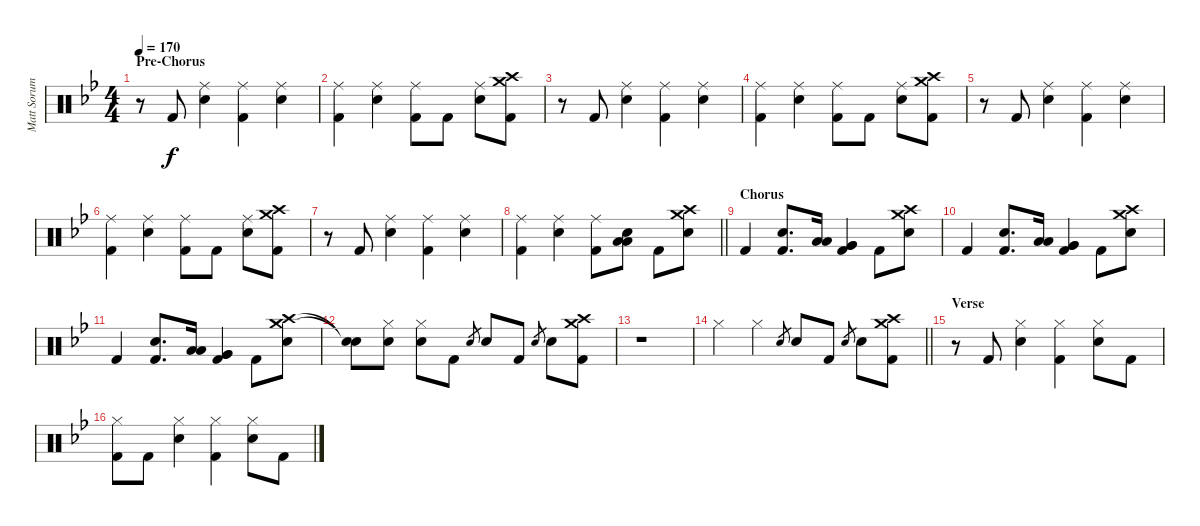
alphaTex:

\track ("Matt Sorum - Drums" "Matt Sorum") {instrument percussion}
\staff {score}
\articulation defaults
\ts (4 4)
\section ("" "Pre-Chorus")
\tempo 170
\clef neutral
\ks bb
r.8{dy f} "Kick (hit) 2".8 ("Ride (middle)" "Snare (hit) 2").4 ("Ride (middle)" "Kick (hit) 2").4 ("Ride (middle)" "Snare (hit) 2").4 |
("Ride (middle)" "Kick (hit) 2").4 ("Ride (middle)" "Snare (hit) 2").4 ("Ride (middle)" "Kick (hit) 2").8 "Kick (hit) 2".8 ("Ride (middle)" "Snare (hit) 2").8 ("Crash medium (hit)" "Crash high (hit)" "Kick (hit) 2").8 |
r.8 "Kick (hit) 2".8 ("Ride (middle)" "Snare (hit) 2").4 ("Ride (middle)" "Kick (hit) 2").4 ("Ride (middle)" "Snare (hit) 2").4 |
("Ride (middle)" "Kick (hit) 2").4 ("Ride (middle)" "Snare (hit) 2").4 ("Ride (middle)" "Kick (hit) 2").8 "Kick (hit) 2".8 ("Ride (middle)" "Snare (hit) 2").8 ("Crash medium (hit)" "Crash high (hit)" "Kick (hit) 2").8 |
r.8 "Kick (hit) 2".8 ("Ride (middle)" "Snare (hit) 2").4 ("Ride (middle)" "Kick (hit) 2").4 ("Ride (middle)" "Snare (hit) 2").4 |
("Ride (middle)" "Kick (hit) 2").4 ("Ride (middle)" "Snare (hit) 2").4 ("Ride (middle)" "Kick (hit) 2").8 "Kick (hit) 2".8 ("Ride (middle)" "Snare (hit) 2").8 ("Crash medium (hit)" "Crash high (hit)" "Kick (hit) 2").8 |
r.8 "Kick (hit) 2".8 ("Ride (middle)" "Snare (hit) 2").4 ("Ride (middle)" "Kick (hit) 2").4 ("Ride (middle)" "Snare (hit) 2").4 |
\barLineRight lightlight
("Ride (middle)" "Kick (hit) 2").4 ("Ride (middle)" "Snare (hit) 2").4 ("Ride (middle)" "Kick (hit) 2").8 ("Low Tom (hit)" "Low Tom (hit)" "Snare (hit) 2").8 "Kick (hit) 2".8 ("Crash medium (hit)" "Crash high (hit)" "Snare (hit) 2").8 |
\section ("" "Chorus")
"Kick (hit) 2".4 ("Snare (hit) 2" "Kick (hit) 2").8{d} ("Low Tom (hit)" "Low Tom (hit)").16 ("Very Low Tom (hit)" "Very Low Tom (hit)" "Kick (hit) 2").4 "Kick (hit) 2".8 ("Crash medium (hit)" "Crash high (hit)" "Snare (hit) 2").8 |
"Kick (hit) 2".4 ("Snare (hit) 2" "Kick (hit) 2").8{d} ("Low Tom (hit)" "Low Tom (hit)").16 ("Very Low Tom (hit)" "Very Low Tom (hit)" "Kick (hit) 2").4 "Kick (hit) 2".8 ("Crash medium (hit)" "Crash high (hit)" "Snare (hit) 2").8 |
"Kick (hit) 2".4 ("Snare (hit) 2" "Kick (hit) 2").8{d} ("Low Tom (hit)" "Low Tom (hit)").16 ("Very Low Tom (hit)" "Very Low Tom (hit)" "Kick (hit) 2").4 "Kick (hit) 2".8 ("Crash medium (hit)" "Crash high (hit)" "Snare (hit) 2").8 |
("Snare (hit)"{t} "Snare (hit)"{t}).8 ("Hi-Hat (closed)" "Snare (hit) 2").8 ("Hi-Hat (closed)" "Snare (hit) 2").8 "Kick (hit) 2".8 "Snare (hit) 2".8{gr} "Snare (hit) 2".8 "Kick (hit) 2".8 "Snare (hit) 2".8{gr} "Snare (hit) 2".8 ("Crash medium (hit)" "Crash high (hit)" "Kick (hit) 2").8 |
r.1 |
\barLineRight lightlight "Hi-Hat (closed)".4 "Hi-Hat (closed)".4 "Snare (hit) 2".8{gr} "Snare (hit) 2".8 "Kick (hit) 2".8 "Snare (hit) 2".8{gr} "Snare (hit) 2".8
("Crash medium (hit)" "Crash high (hit)" "Kick (hit) 2").8 |
\section ("" "Verse")
r.8 "Kick (hit) 2".8 ("Hi-Hat (closed)" "Snare (hit) 2").4 ("Hi-Hat (closed)" "Kick (hit) 2").4 ("Hi-Hat (closed)" "Snare (hit) 2").8 "Kick (hit) 2".8 |
("Hi-Hat (closed)" "Kick (hit) 2").8 "Kick (hit) 2".8 ("Hi-Hat (closed)" "Snare (hit) 2").4 ("Hi-Hat (closed)" "Kick (hit) 2").4 ("Hi-Hat (closed)" "Snare (hit) 2").8 "Kick (hit) 2".8
